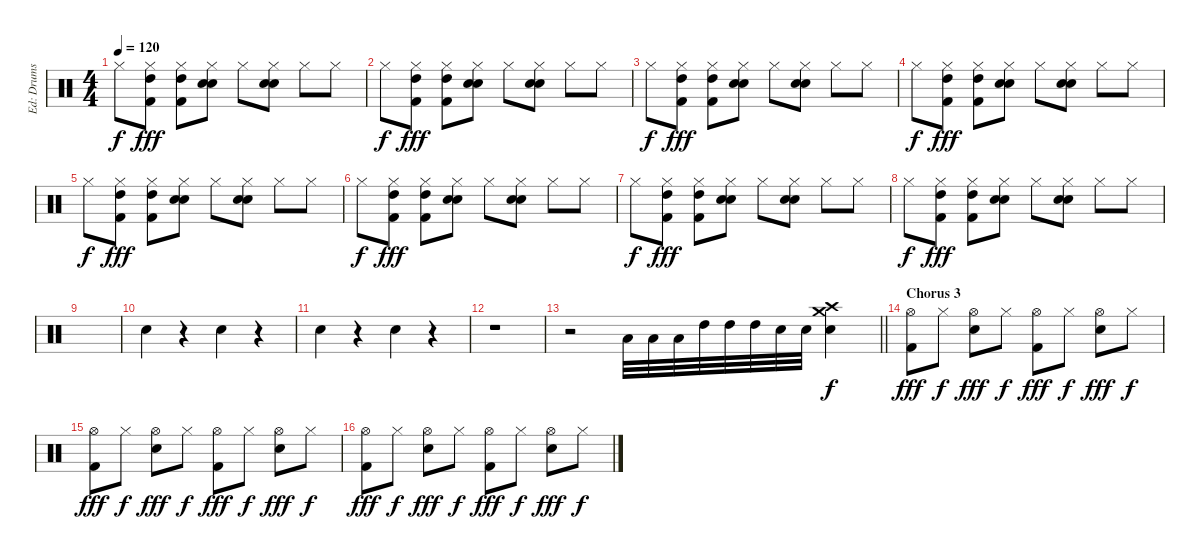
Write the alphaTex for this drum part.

\track ("Ed: Drums" "Ed: Drums") {instrument percussion}
\staff {score}
\articulation defaults
\ts (4 4)
\tempo 120
\clef neutral
\ks c "Hi-Hat (closed)".8{dy f}
("Hi-Hat (closed)" "High Tom (hit)" "Kick (hit) 2").8{dy fff} ("Hi-Hat (closed)" "High Tom (hit)" "Kick (hit) 2").8 ("Hi-Hat (closed)" "Electric Snare (hit)" "Electric Snare (hit)").8 "Hi-Hat (closed)".8 ("Hi-Hat (closed)" "Electric Snare (hit)" "Electric Snare (hit)").8 "Hi-Hat (closed)".8 "Hi-Hat (closed)".8 |
"Hi-Hat (closed)".8{dy f} ("Hi-Hat (closed)" "High Tom (hit)" "Kick (hit) 2").8{dy fff} ("Hi-Hat (closed)" "High Tom (hit)" "Kick (hit) 2").8 ("Hi-Hat (closed)" "Electric Snare (hit)" "Electric Snare (hit)").8 "Hi-Hat (closed)".8 ("Hi-Hat (closed)" "Electric Snare (hit)" "Electric Snare (hit)").8 "Hi-Hat (closed)".8 "Hi-Hat (closed)".8 |
"Hi-Hat (closed)".8{dy f} ("Hi-Hat (closed)" "High Tom (hit)" "Kick (hit) 2").8{dy fff} ("Hi-Hat (closed)" "High Tom (hit)" "Kick (hit) 2").8 ("Hi-Hat (closed)" "Electric Snare (hit)" "Electric Snare (hit)").8 "Hi-Hat (closed)".8 ("Hi-Hat (closed)" "Electric Snare (hit)" "Electric Snare (hit)").8 "Hi-Hat (closed)".8 "Hi-Hat (closed)".8 |
"Hi-Hat (closed)".8{dy f} ("Hi-Hat (closed)" "High Tom (hit)" "Kick (hit) 2").8{dy fff} ("Hi-Hat (closed)" "High Tom (hit)" "Kick (hit) 2").8 ("Hi-Hat (closed)" "Electric Snare (hit)" "Electric Snare (hit)").8 "Hi-Hat (closed)".8 ("Hi-Hat (closed)" "Electric Snare (hit)" "Electric Snare (hit)").8 "Hi-Hat (closed)".8 "Hi-Hat (closed)".8 |
"Hi-Hat (closed)".8{dy f} ("Hi-Hat (closed)" "High Tom (hit)" "Kick (hit) 2").8{dy fff} ("Hi-Hat (closed)" "High Tom (hit)" "Kick (hit) 2").8 ("Hi-Hat (closed)" "Electric Snare (hit)" "Electric Snare (hit)").8 "Hi-Hat (closed)".8 ("Hi-Hat (closed)" "Electric Snare (hit)" "Electric Snare (hit)").8 "Hi-Hat (closed)".8 "Hi-Hat (closed)".8 |
"Hi-Hat (closed)".8{dy f} ("Hi-Hat (closed)" "High Tom (hit)" "Kick (hit) 2").8{dy fff} ("Hi-Hat (closed)" "High Tom (hit)" "Kick (hit) 2").8 ("Hi-Hat (closed)" "Electric Snare (hit)" "Electric Snare (hit)").8 "Hi-Hat (closed)".8 ("Hi-Hat (closed)" "Electric Snare (hit)" "Electric Snare (hit)").8 "Hi-Hat (closed)".8 "Hi-Hat (closed)".8 |
"Hi-Hat (closed)".8{dy f} ("Hi-Hat (closed)" "High Tom (hit)" "Kick (hit) 2").8{dy fff} ("Hi-Hat (closed)" "High Tom (hit)" "Kick (hit) 2").8 ("Hi-Hat (closed)" "Electric Snare (hit)" "Electric Snare (hit)").8 "Hi-Hat (closed)".8 ("Hi-Hat (closed)" "Electric Snare (hit)" "Electric Snare (hit)").8 "Hi-Hat (closed)".8 "Hi-Hat (closed)".8 |
"Hi-Hat (closed)".8{dy f} ("Hi-Hat (closed)" "High Tom (hit)" "Kick (hit) 2").8{dy fff} ("Hi-Hat (closed)" "High Tom (hit)" "Kick (hit) 2").8 ("Hi-Hat (closed)" "Electric Snare (hit)" "Electric Snare (hit)").8 "Hi-Hat (closed)".8 ("Hi-Hat (closed)" "Electric Snare (hit)" "Electric Snare (hit)").8 "Hi-Hat (closed)".8 "Hi-Hat (closed)".8 |
|
"Electric Snare (hit)".4 r.4 "Electric Snare (hit)".4 r.4 |
"Electric Snare (hit)".4 r.4 "Electric Snare (hit)".4 r.4 |
r.1 |
\barLineRight lightlight
r.2 "Low Floor Tom (hit)".32 "Low Floor Tom (hit)".32 "Low Floor Tom (hit)".32 "High Tom (hit)".32 "High Tom (hit)".32 "High Tom (hit)".32 "Snare (hit) 2".32 "Snare (hit) 2".32 ("Snare (hit) 2" "Crash high (hit)" "Crash medium (hit)").4{dy f} |
\section ("" "Chorus 3")
("Hi-Hat (open)" "Kick (hit) 2").8{dy fff} "Hi-Hat (closed)".8{dy f} ("Hi-Hat (open)" "Electric Snare (hit)").8{dy fff} "Hi-Hat (closed)".8{dy f} ("Hi-Hat (open)" "Kick (hit) 2").8{dy fff} "Hi-Hat (closed)".8{dy f} ("Hi-Hat (open)" "Electric Snare (hit)").8{dy fff} "Hi-Hat (closed)".8{dy f} |
("Hi-Hat (open)" "Kick (hit) 2").8{dy fff} "Hi-Hat (closed)".8{dy f} ("Hi-Hat (open)" "Electric Snare (hit)").8{dy fff} "Hi-Hat (closed)".8{dy f} ("Hi-Hat (open)" "Kick (hit) 2").8{dy fff} "Hi-Hat (closed)".8{dy f} ("Hi-Hat (open)" "Electric Snare (hit)").8{dy fff} "Hi-Hat (closed)".8{dy f} |
("Hi-Hat (open)" "Kick (hit) 2").8{dy fff} "Hi-Hat (closed)".8{dy f} ("Hi-Hat (open)" "Electric Snare (hit)").8{dy fff} "Hi-Hat (closed)".8{dy f} ("Hi-Hat (open)" "Kick (hit) 2").8{dy fff} "Hi-Hat (closed)".8{dy f} ("Hi-Hat (open)" "Electric Snare (hit)").8{dy fff} "Hi-Hat (closed)".8{dy f}
